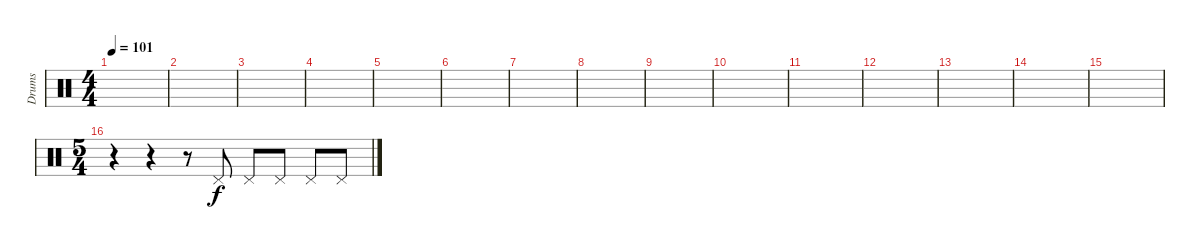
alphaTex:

\track ("Drums" "Drums") {instrument percussion}
\staff {score}
\articulation defaults
\ts (4 4)
\tempo 101
\clef neutral
\ks c
|
|
|
|
|
|
|
|
|
|
|
|
|
|
|
\ts (5 4)
r.4 r.4 r.8 "Pedal Hi-Hat (hit)".8 "Pedal Hi-Hat (hit)".8 "Pedal Hi-Hat (hit)".8 "Pedal Hi-Hat (hit)".8 "Pedal Hi-Hat (hit)".8
